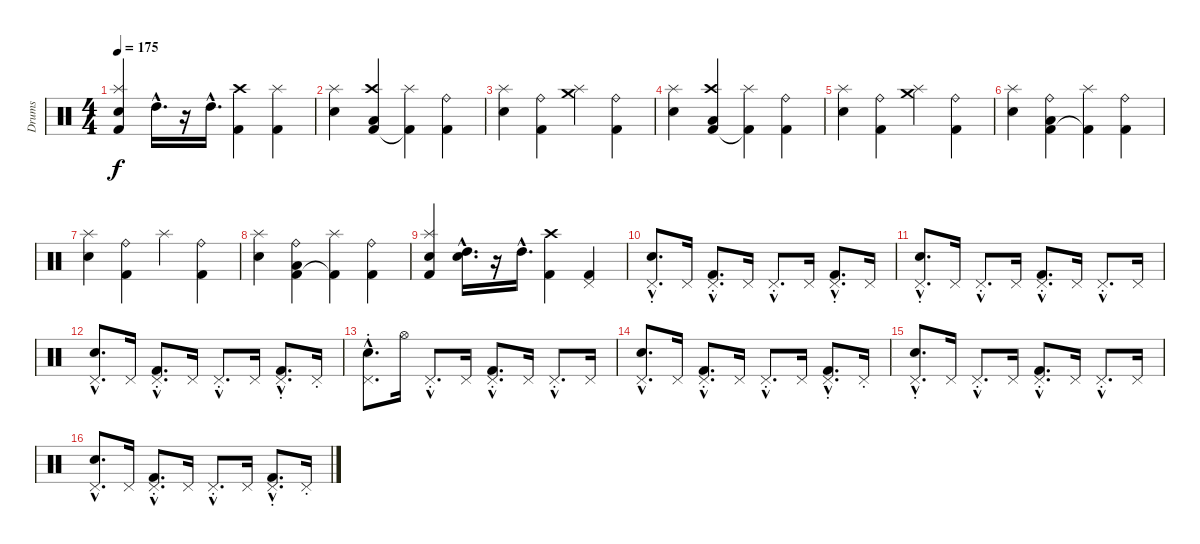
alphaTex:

\track ("Drums" "Drums") {instrument percussion}
\staff {score}
\articulation defaults
\ts (4 4)
\tempo 175
\clef neutral
\ks c
("Electric Snare (hit)" "Splash (hit)" "Kick (hit) 2").4{dy f} "High Tom (hit)"{hac}.16{d} r.16 "High Tom (hit)"{hac}.16{d} ("Kick (hit) 2" "Crash high (hit)").4 ("Kick (hit) 2" "Splash (hit)").4 |
("Electric Snare (hit)" "Splash (hit)").4 ("Kick (hit) 2" "Low Tom (hit)" "Crash high (hit)").4 ("Kick (hit) 2"{t} "Splash (hit)").4 ("Kick (hit) 2" "Ride (bell)").4 |
("Electric Snare (hit)" "Splash (hit)").4 ("Kick (hit) 2" "Ride (bell)").4 ("Crash medium (hit)" "Splash (hit)").4 ("Kick (hit) 2" "Ride (bell)").4 |
("Electric Snare (hit)" "Splash (hit)").4 ("Kick (hit) 2" "Low Tom (hit)" "Crash high (hit)").4 ("Kick (hit) 2"{t} "Splash (hit)").4 ("Kick (hit) 2" "Ride (bell)").4 |
("Electric Snare (hit)" "Splash (hit)").4 ("Kick (hit) 2" "Ride (bell)").4 ("Crash medium (hit)" "Splash (hit)").4 ("Kick (hit) 2" "Ride (bell)").4 |
("Electric Snare (hit)" "Splash (hit)").4 ("Kick (hit) 2" "Low Tom (hit)" "Ride (bell)").4 ("Kick (hit) 2"{t} "Splash (hit)").4 ("Kick (hit) 2" "Ride (bell)").4 |
("Electric Snare (hit)" "Splash (hit)").4 ("Kick (hit) 2" "Ride (bell)").4 "Splash (hit)".4 ("Kick (hit) 2" "Ride (bell)").4 |
("Electric Snare (hit)" "Splash (hit)").4 ("Kick (hit) 2" "Low Tom (hit)" "Ride (bell)").4 ("Kick (hit) 2"{t} "Splash (hit)").4 ("Kick (hit) 2" "Ride (bell)").4 |
("Electric Snare (hit)" "Splash (hit)" "Kick (hit) 2").4 ("High Tom (hit)"{hac} "Electric Snare (hit)"{hac}).16{d} r.16 "High Tom (hit)"{hac}.16{d} ("Kick (hit) 2" "Crash high (hit)").4 ("Kick (hit) 2" "Pedal Hi-Hat (hit)").4 |
("Electric Snare (hit)"{hac} "Pedal Hi-Hat (hit)"{hac st}).8{d} "Pedal Hi-Hat (hit)".16 ("Pedal Hi-Hat (hit)"{hac st} "Kick (hit) 2"{hac}).8{d} "Pedal Hi-Hat (hit)".16 "Pedal Hi-Hat (hit)"{hac st}.8{d} "Pedal Hi-Hat (hit)".16 ("Kick (hit) 2"{hac} "Pedal Hi-Hat (hit)"{hac st}).8{d} "Pedal Hi-Hat (hit)".16 |
("Electric Snare (hit)"{hac} "Pedal Hi-Hat (hit)"{hac st}).8{d} "Pedal Hi-Hat (hit)".16 "Pedal Hi-Hat (hit)"{hac st}.8{d} "Pedal Hi-Hat (hit)".16 ("Pedal Hi-Hat (hit)"{hac st} "Kick (hit) 2"{hac}).8{d} "Pedal Hi-Hat (hit)".16 "Pedal Hi-Hat (hit)"{hac st}.8{d} "Pedal Hi-Hat (hit)".16 |
("Electric Snare (hit)"{hac} "Pedal Hi-Hat (hit)"{hac}).8{d} "Pedal Hi-Hat (hit)".16 ("Pedal Hi-Hat (hit)"{hac st} "Kick (hit) 2"{hac}).8{d} "Pedal Hi-Hat (hit)".16 "Pedal Hi-Hat (hit)"{hac st}.8{d} "Pedal Hi-Hat (hit)".16 ("Kick (hit) 2"{hac} "Pedal Hi-Hat (hit)"{hac st}).8{d} "Pedal Hi-Hat (hit)"{st}.16 |
("Electric Snare (hit)"{hac} "Pedal Hi-Hat (hit)"{hac st}).8{d} "Hi-Hat (open)".16 "Pedal Hi-Hat (hit)"{hac st}.8{d} "Pedal Hi-Hat (hit)".16 ("Pedal Hi-Hat (hit)"{hac st} "Kick (hit) 2"{hac}).8{d} "Pedal Hi-Hat (hit)".16 "Pedal Hi-Hat (hit)"{hac st}.8{d} "Pedal Hi-Hat (hit)".16 |
("Electric Snare (hit)"{hac} "Pedal Hi-Hat (hit)"{hac}).8{d} "Pedal Hi-Hat (hit)".16 ("Pedal Hi-Hat (hit)"{hac st} "Kick (hit) 2"{hac}).8{d} "Pedal Hi-Hat (hit)".16 "Pedal Hi-Hat (hit)"{hac st}.8{d} "Pedal Hi-Hat (hit)".16 ("Kick (hit) 2"{hac} "Pedal Hi-Hat (hit)"{hac st}).8{d} "Pedal Hi-Hat (hit)"{st}.16 |
("Electric Snare (hit)"{hac} "Pedal Hi-Hat (hit)"{hac st}).8{d} "Pedal Hi-Hat (hit)".16 "Pedal Hi-Hat (hit)"{hac st}.8{d} "Pedal Hi-Hat (hit)".16 ("Pedal Hi-Hat (hit)"{hac st} "Kick (hit) 2"{hac}).8{d} "Pedal Hi-Hat (hit)".16 "Pedal Hi-Hat (hit)"{hac st}.8{d} "Pedal Hi-Hat (hit)".16 |
("Electric Snare (hit)"{hac} "Pedal Hi-Hat (hit)"{hac}).8{d} "Pedal Hi-Hat (hit)".16 ("Pedal Hi-Hat (hit)"{hac st} "Kick (hit) 2"{hac}).8{d} "Pedal Hi-Hat (hit)".16 "Pedal Hi-Hat (hit)"{hac st}.8{d} "Pedal Hi-Hat (hit)".16 ("Kick (hit) 2"{hac} "Pedal Hi-Hat (hit)"{hac st}).8{d} "Pedal Hi-Hat (hit)"{st}.16
